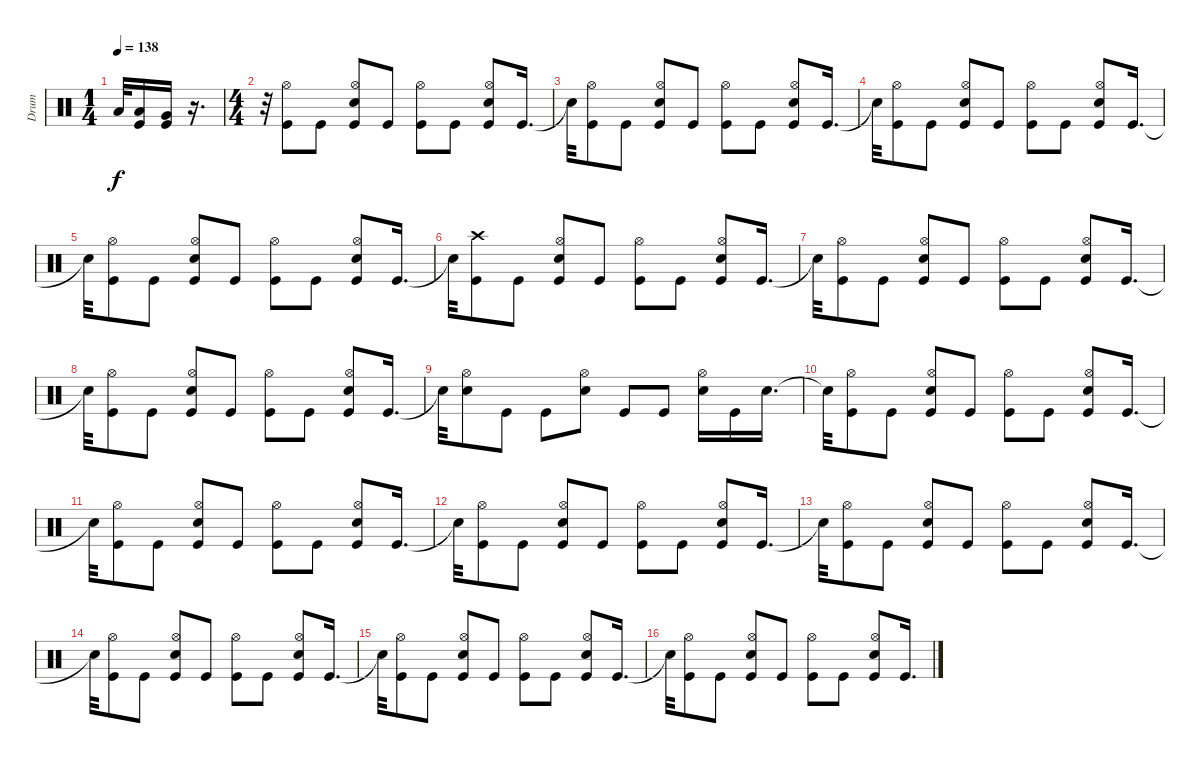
\track ("Drum" "Drum") {instrument percussion}
\staff {score}
\articulation defaults
\ts (1 4)
\tempo 138
\clef neutral
\ks c "Low Tom (hit)".32{dy f}
("Low Tom (hit)" "Kick (hit)").16 ("Very Low Tom (hit)" "Kick (hit)").16 r.16{d} |
\ts (4 4)
r.32 ("Hi-Hat (open)" "Kick (hit)").8 "Kick (hit)".8 ("Hi-Hat (open)" "Electric Snare (hit)" "Kick (hit)").8 "Kick (hit)".8 ("Hi-Hat (open)" "Kick (hit)").8 "Kick (hit)".8 ("Electric Snare (hit)" "Hi-Hat (open)" "Kick (hit)").8 "Kick (hit)".16{d} |
"Snare (hit)"{t}.32 ("Hi-Hat (open)" "Kick (hit)").8 "Kick (hit)".8 ("Hi-Hat (open)" "Electric Snare (hit)" "Kick (hit)").8 "Kick (hit)".8 ("Hi-Hat (open)" "Kick (hit)").8 "Kick (hit)".8 ("Electric Snare (hit)" "Hi-Hat (open)" "Kick (hit)").8 "Kick (hit)".16{d} |
"Snare (hit)"{t}.32 ("Hi-Hat (open)" "Kick (hit)").8 "Kick (hit)".8 ("Hi-Hat (open)" "Electric Snare (hit)" "Kick (hit)").8 "Kick (hit)".8 ("Hi-Hat (open)" "Kick (hit)").8 "Kick (hit)".8 ("Electric Snare (hit)" "Hi-Hat (open)" "Kick (hit)").8 "Kick (hit)".16{d} |
"Snare (hit)"{t}.32 ("Hi-Hat (open)" "Kick (hit)").8 "Kick (hit)".8 ("Hi-Hat (open)" "Electric Snare (hit)" "Kick (hit)").8 "Kick (hit)".8 ("Hi-Hat (open)" "Kick (hit)").8 "Kick (hit)".8 ("Electric Snare (hit)" "Hi-Hat (open)" "Kick (hit)").8 "Kick (hit)".16{d} |
"Snare (hit)"{t}.32 ("Crash high (hit)" "Kick (hit)").8 "Kick (hit)".8 ("Hi-Hat (open)" "Electric Snare (hit)" "Kick (hit)").8 "Kick (hit)".8 ("Hi-Hat (open)" "Kick (hit)").8 "Kick (hit)".8 ("Electric Snare (hit)" "Hi-Hat (open)" "Kick (hit)").8 "Kick (hit)".16{d} |
"Snare (hit)"{t}.32 ("Hi-Hat (open)" "Kick (hit)").8 "Kick (hit)".8 ("Hi-Hat (open)" "Electric Snare (hit)" "Kick (hit)").8 "Kick (hit)".8 ("Hi-Hat (open)" "Kick (hit)").8 "Kick (hit)".8 ("Electric Snare (hit)" "Hi-Hat (open)" "Kick (hit)").8 "Kick (hit)".16{d} |
"Snare (hit)"{t}.32 ("Hi-Hat (open)" "Kick (hit)").8 "Kick (hit)".8 ("Hi-Hat (open)" "Electric Snare (hit)" "Kick (hit)").8 "Kick (hit)".8 ("Hi-Hat (open)" "Kick (hit)").8 "Kick (hit)".8 ("Electric Snare (hit)" "Hi-Hat (open)" "Kick (hit)").8 "Kick (hit)".16{d} |
"Snare (hit)"{t}.32 ("Hi-Hat (open)" "Electric Snare (hit)").8 "Kick (hit)".8 "Kick (hit)".8 ("Hi-Hat (open)" "Electric Snare (hit)").8 "Kick (hit)".8 "Kick (hit)".8 ("Hi-Hat (open)" "Electric Snare (hit)").16 "Kick (hit)".16 "Electric Snare (hit)".16{d} |
"Snare (hit)"{t}.32 ("Hi-Hat (open)" "Kick (hit)").8 "Kick (hit)".8 ("Hi-Hat (open)" "Electric Snare (hit)" "Kick (hit)").8 "Kick (hit)".8 ("Hi-Hat (open)" "Kick (hit)").8 "Kick (hit)".8 ("Electric Snare (hit)" "Hi-Hat (open)" "Kick (hit)").8 "Kick (hit)".16{d} |
"Snare (hit)"{t}.32 ("Hi-Hat (open)" "Kick (hit)").8 "Kick (hit)".8 ("Hi-Hat (open)" "Electric Snare (hit)" "Kick (hit)").8 "Kick (hit)".8 ("Hi-Hat (open)" "Kick (hit)").8 "Kick (hit)".8 ("Electric Snare (hit)" "Hi-Hat (open)" "Kick (hit)").8 "Kick (hit)".16{d} |
"Snare (hit)"{t}.32 ("Hi-Hat (open)" "Kick (hit)").8 "Kick (hit)".8 ("Hi-Hat (open)" "Electric Snare (hit)" "Kick (hit)").8 "Kick (hit)".8 ("Hi-Hat (open)" "Kick (hit)").8 "Kick (hit)".8 ("Electric Snare (hit)" "Hi-Hat (open)" "Kick (hit)").8 "Kick (hit)".16{d} |
"Snare (hit)"{t}.32 ("Hi-Hat (open)" "Kick (hit)").8 "Kick (hit)".8 ("Hi-Hat (open)" "Electric Snare (hit)" "Kick (hit)").8 "Kick (hit)".8 ("Hi-Hat (open)" "Kick (hit)").8 "Kick (hit)".8 ("Electric Snare (hit)" "Hi-Hat (open)" "Kick (hit)").8 "Kick (hit)".16{d} |
"Snare (hit)"{t}.32 ("Hi-Hat (open)" "Kick (hit)").8 "Kick (hit)".8 ("Hi-Hat (open)" "Electric Snare (hit)" "Kick (hit)").8 "Kick (hit)".8 ("Hi-Hat (open)" "Kick (hit)").8 "Kick (hit)".8 ("Electric Snare (hit)" "Hi-Hat (open)" "Kick (hit)").8 "Kick (hit)".16{d} |
"Snare (hit)"{t}.32 ("Hi-Hat (open)" "Kick (hit)").8 "Kick (hit)".8 ("Hi-Hat (open)" "Electric Snare (hit)" "Kick (hit)").8 "Kick (hit)".8 ("Hi-Hat (open)" "Kick (hit)").8 "Kick (hit)".8 ("Electric Snare (hit)" "Hi-Hat (open)" "Kick (hit)").8 "Kick (hit)".16{d} |
"Snare (hit)"{t}.32 ("Hi-Hat (open)" "Kick (hit)").8 "Kick (hit)".8 ("Hi-Hat (open)" "Electric Snare (hit)" "Kick (hit)").8 "Kick (hit)".8 ("Hi-Hat (open)" "Kick (hit)").8 "Kick (hit)".8 ("Electric Snare (hit)" "Hi-Hat (open)" "Kick (hit)").8 "Kick (hit)".16{d}
